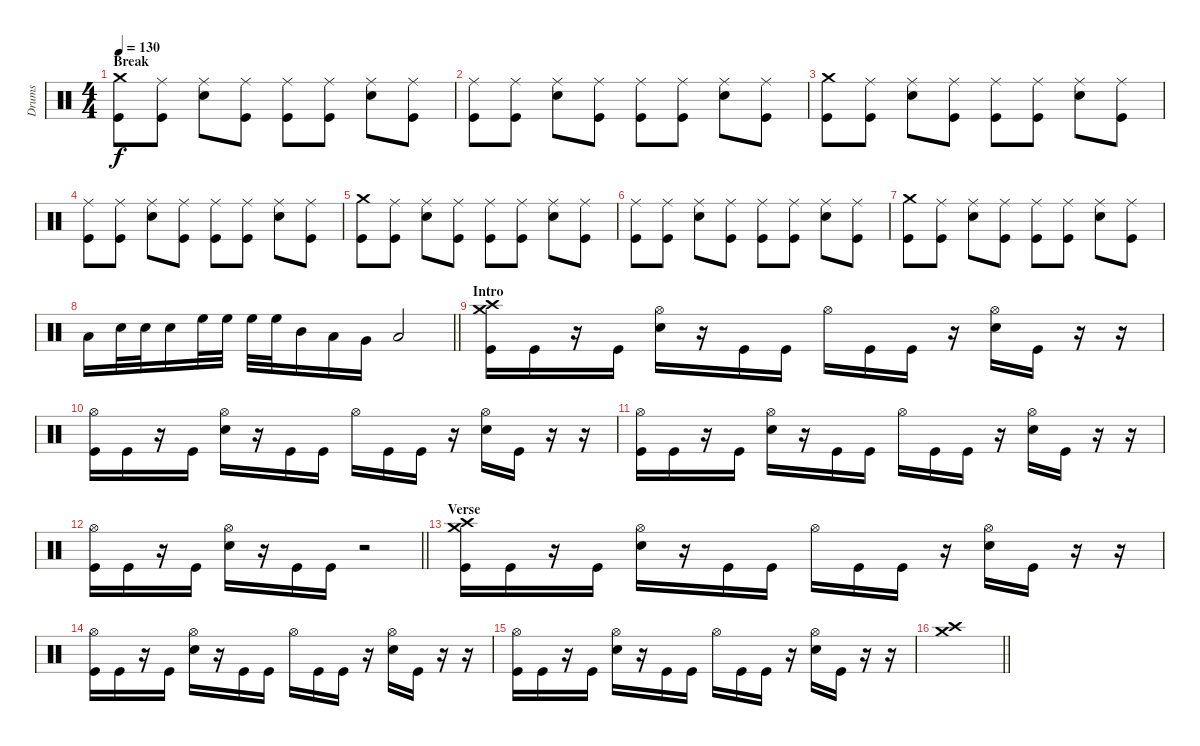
\track ("Drums" "Drums") {instrument percussion}
\staff {score}
\articulation defaults
\ts (4 4)
\section ("" "Break")
\tempo 130
\clef neutral
\ks c
("Kick (hit)" "Crash medium (hit)").8{dy f} ("Kick (hit)" "Ride (middle)").8 ("Snare (hit) 2" "Ride (middle)").8 ("Kick (hit)" "Ride (middle)").8 ("Kick (hit)" "Ride (middle)").8 ("Kick (hit)" "Ride (middle)").8 ("Snare (hit) 2" "Ride (middle)").8 ("Kick (hit)" "Ride (middle)").8 |
("Kick (hit)" "Ride (middle)").8 ("Kick (hit)" "Ride (middle)").8 ("Snare (hit) 2" "Ride (middle)").8 ("Kick (hit)" "Ride (middle)").8 ("Kick (hit)" "Ride (middle)").8 ("Kick (hit)" "Ride (middle)").8 ("Snare (hit) 2" "Ride (middle)").8 ("Kick (hit)" "Ride (middle)").8 |
("Kick (hit)" "Crash medium (hit)").8 ("Kick (hit)" "Ride (middle)").8 ("Snare (hit) 2" "Ride (middle)").8 ("Kick (hit)" "Ride (middle)").8 ("Kick (hit)" "Ride (middle)").8 ("Kick (hit)" "Ride (middle)").8 ("Snare (hit) 2" "Ride (middle)").8 ("Kick (hit)" "Ride (middle)").8 |
("Kick (hit)" "Ride (middle)").8 ("Kick (hit)" "Ride (middle)").8 ("Snare (hit) 2" "Ride (middle)").8 ("Kick (hit)" "Ride (middle)").8 ("Kick (hit)" "Ride (middle)").8 ("Kick (hit)" "Ride (middle)").8 ("Snare (hit) 2" "Ride (middle)").8 ("Kick (hit)" "Ride (middle)").8 |
("Kick (hit)" "Crash medium (hit)").8 ("Kick (hit)" "Ride (middle)").8 ("Snare (hit) 2" "Ride (middle)").8 ("Kick (hit)" "Ride (middle)").8 ("Kick (hit)" "Ride (middle)").8 ("Kick (hit)" "Ride (middle)").8 ("Snare (hit) 2" "Ride (middle)").8 ("Kick (hit)" "Ride (middle)").8 |
("Kick (hit)" "Ride (middle)").8 ("Kick (hit)" "Ride (middle)").8 ("Snare (hit) 2" "Ride (middle)").8 ("Kick (hit)" "Ride (middle)").8 ("Kick (hit)" "Ride (middle)").8 ("Kick (hit)" "Ride (middle)").8 ("Snare (hit) 2" "Ride (middle)").8 ("Kick (hit)" "Ride (middle)").8 |
("Kick (hit)" "Crash medium (hit)").8 ("Kick (hit)" "Ride (middle)").8 ("Snare (hit) 2" "Ride (middle)").8 ("Kick (hit)" "Ride (middle)").8 ("Kick (hit)" "Ride (middle)").8 ("Kick (hit)" "Ride (middle)").8 ("Snare (hit) 2" "Ride (middle)").8 ("Kick (hit)" "Ride (middle)").8 |
\barLineRight lightlight "Low Tom (hit)".16 "Snare (hit) 2".32 "Snare (hit) 2".32 "Snare (hit) 2".16 "High Floor Tom (hit)".32 "High Floor Tom (hit)".32 "High Floor Tom (hit)".32 "High Floor Tom (hit)".32 "Mid Tom (hit)".16 "Low Tom (hit)".16 "Very Low Tom (hit)".16 "Low Floor Tom (hit)".2
|
\section ("" "Intro")
("Kick (hit)" "Crash high (hit)" "Crash medium (hit)").16 "Kick (hit)".16 r.16 "Kick (hit)".16 ("Snare (hit) 2" "Hi-Hat (open)").16 r.16 "Kick (hit)".16 "Kick (hit)".16 "Hi-Hat (open)".16 "Kick (hit)".16 "Kick (hit)".16 r.16 ("Snare (hit) 2" "Hi-Hat (open)").16 "Kick (hit)".16 r.16 r.16 |
("Kick (hit)" "Hi-Hat (open)").16 "Kick (hit)".16 r.16 "Kick (hit)".16 ("Snare (hit) 2" "Hi-Hat (open)").16 r.16 "Kick (hit)".16 "Kick (hit)".16 "Hi-Hat (open)".16 "Kick (hit)".16 "Kick (hit)".16 r.16 ("Snare (hit) 2" "Hi-Hat (open)").16 "Kick (hit)".16 r.16 r.16 |
("Kick (hit)" "Hi-Hat (open)").16 "Kick (hit)".16 r.16 "Kick (hit)".16 ("Snare (hit) 2" "Hi-Hat (open)").16 r.16 "Kick (hit)".16 "Kick (hit)".16 "Hi-Hat (open)".16 "Kick (hit)".16 "Kick (hit)".16 r.16 ("Snare (hit) 2" "Hi-Hat (open)").16 "Kick (hit)".16 r.16 r.16 |
\barLineRight lightlight
("Kick (hit)" "Hi-Hat (open)").16 "Kick (hit)".16 r.16 "Kick (hit)".16 ("Snare (hit) 2" "Hi-Hat (open)").16 r.16 "Kick (hit)".16 "Kick (hit)".16 r.2 |
\section ("" "Verse")
("Kick (hit)" "Crash high (hit)" "Crash medium (hit)").16 "Kick (hit)".16 r.16 "Kick (hit)".16 ("Snare (hit) 2" "Hi-Hat (open)").16 r.16 "Kick (hit)".16 "Kick (hit)".16 "Hi-Hat (open)".16 "Kick (hit)".16 "Kick (hit)".16 r.16 ("Snare (hit) 2" "Hi-Hat (open)").16 "Kick (hit)".16 r.16 r.16 |
("Kick (hit)" "Hi-Hat (open)").16 "Kick (hit)".16 r.16 "Kick (hit)".16 ("Snare (hit) 2" "Hi-Hat (open)").16 r.16 "Kick (hit)".16 "Kick (hit)".16 "Hi-Hat (open)".16 "Kick (hit)".16 "Kick (hit)".16 r.16 ("Snare (hit) 2" "Hi-Hat (open)").16 "Kick (hit)".16 r.16 r.16 |
("Kick (hit)" "Hi-Hat (open)").16 "Kick (hit)".16 r.16 "Kick (hit)".16 ("Snare (hit) 2" "Hi-Hat (open)").16 r.16 "Kick (hit)".16 "Kick (hit)".16 "Hi-Hat (open)".16 "Kick (hit)".16 "Kick (hit)".16 r.16 ("Snare (hit) 2" "Hi-Hat (open)").16 "Kick (hit)".16 r.16 r.16{volume 0} |
\barLineRight lightlight
("Crash high (hit)" "Crash medium (hit)").1{volume 13}
